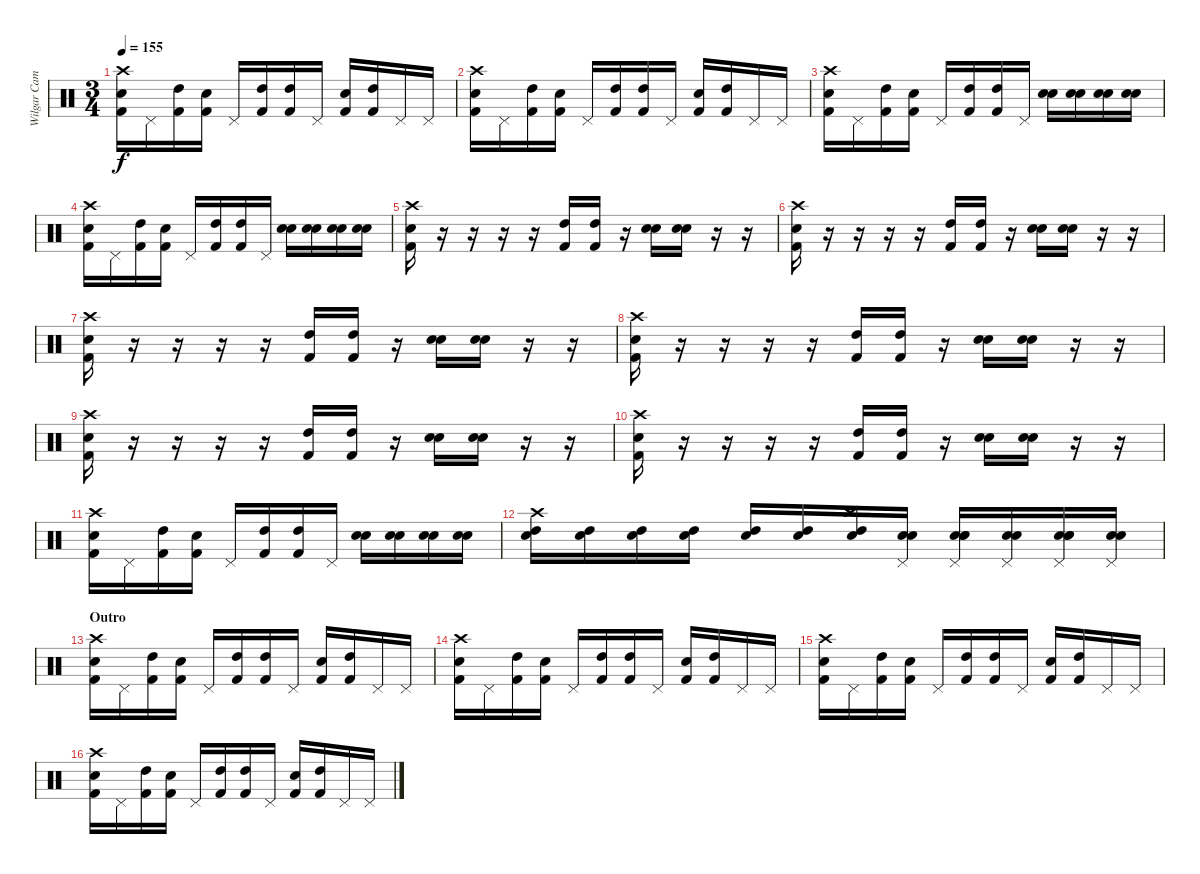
\track ("Wilgar Campbell" "Wilgar Cam") {instrument percussion}
\staff {score}
\articulation defaults
\ts (3 4)
\tempo 155
\clef neutral
\ks c
("Kick (hit) 2" "Snare (hit) 2" "Crash high (hit)").16{dy f} "Pedal Hi-Hat (hit)".16 ("Kick (hit) 2" "High Tom (hit)").16 ("Kick (hit) 2" "Snare (hit) 2").16 "Pedal Hi-Hat (hit)".16 ("High Tom (hit)" "Kick (hit) 2").16 ("High Tom (hit)" "Kick (hit) 2").16 "Pedal Hi-Hat (hit)".16 ("Electric Snare (hit)" "Kick (hit) 2").16 ("High Tom (hit)" "Kick (hit) 2").16 "Pedal Hi-Hat (hit)".16 "Pedal Hi-Hat (hit)".16 |
("Kick (hit) 2" "Snare (hit) 2" "Crash high (hit)").16 "Pedal Hi-Hat (hit)".16 ("Kick (hit) 2" "High Tom (hit)").16 ("Kick (hit) 2" "Snare (hit) 2").16 "Pedal Hi-Hat (hit)".16 ("High Tom (hit)" "Kick (hit) 2").16 ("High Tom (hit)" "Kick (hit) 2").16 "Pedal Hi-Hat (hit)".16 ("Electric Snare (hit)" "Kick (hit) 2").16 ("High Tom (hit)" "Kick (hit) 2").16 "Pedal Hi-Hat (hit)".16 "Pedal Hi-Hat (hit)".16 |
("Kick (hit) 2" "Snare (hit) 2" "Crash high (hit)").16 "Pedal Hi-Hat (hit)".16 ("Kick (hit) 2" "High Tom (hit)").16 ("Kick (hit) 2" "Snare (hit) 2").16 "Pedal Hi-Hat (hit)".16 ("High Tom (hit)" "Kick (hit) 2").16 ("High Tom (hit)" "Kick (hit) 2").16 "Pedal Hi-Hat (hit)".16 ("Electric Snare (hit)" "Electric Snare (hit)").16 ("Electric Snare (hit)" "Electric Snare (hit)").16 ("Electric Snare (hit)" "Electric Snare (hit)").16 ("Electric Snare (hit)" "Electric Snare (hit)").16 |
("Kick (hit) 2" "Snare (hit) 2" "Crash high (hit)").16 "Pedal Hi-Hat (hit)".16 ("Kick (hit) 2" "High Tom (hit)").16 ("Kick (hit) 2" "Snare (hit) 2").16 "Pedal Hi-Hat (hit)".16 ("High Tom (hit)" "Kick (hit) 2").16 ("High Tom (hit)" "Kick (hit) 2").16 "Pedal Hi-Hat (hit)".16 ("Electric Snare (hit)" "Electric Snare (hit)").16 ("Electric Snare (hit)" "Electric Snare (hit)").16 ("Electric Snare (hit)" "Electric Snare (hit)").16 ("Electric Snare (hit)" "Electric Snare (hit)").16 |
("Kick (hit) 2" "Snare (hit) 2" "Crash high (hit)").16 r.16 r.16 r.16 r.16 ("High Tom (hit)" "Kick (hit) 2").16 ("High Tom (hit)" "Kick (hit) 2").16 r.16 ("Electric Snare (hit)" "Electric Snare (hit)").16 ("Electric Snare (hit)" "Electric Snare (hit)").16 r.16 r.16 |
("Kick (hit) 2" "Snare (hit) 2" "Crash high (hit)").16 r.16 r.16 r.16 r.16 ("High Tom (hit)" "Kick (hit) 2").16 ("High Tom (hit)" "Kick (hit) 2").16 r.16 ("Electric Snare (hit)" "Electric Snare (hit)").16 ("Electric Snare (hit)" "Electric Snare (hit)").16 r.16 r.16 |
("Kick (hit) 2" "Snare (hit) 2" "Crash high (hit)").16 r.16 r.16 r.16 r.16 ("High Tom (hit)" "Kick (hit) 2").16 ("High Tom (hit)" "Kick (hit) 2").16 r.16 ("Electric Snare (hit)" "Electric Snare (hit)").16 ("Electric Snare (hit)" "Electric Snare (hit)").16 r.16 r.16 |
("Kick (hit) 2" "Snare (hit) 2" "Crash high (hit)").16 r.16 r.16 r.16 r.16 ("High Tom (hit)" "Kick (hit) 2").16 ("High Tom (hit)" "Kick (hit) 2").16 r.16 ("Electric Snare (hit)" "Electric Snare (hit)").16 ("Electric Snare (hit)" "Electric Snare (hit)").16 r.16 r.16 |
("Kick (hit) 2" "Snare (hit) 2" "Crash high (hit)").16 r.16 r.16 r.16 r.16 ("High Tom (hit)" "Kick (hit) 2").16 ("High Tom (hit)" "Kick (hit) 2").16 r.16 ("Electric Snare (hit)" "Electric Snare (hit)").16 ("Electric Snare (hit)" "Electric Snare (hit)").16 r.16 r.16 |
("Kick (hit) 2" "Snare (hit) 2" "Crash high (hit)").16 r.16 r.16 r.16 r.16 ("High Tom (hit)" "Kick (hit) 2").16 ("High Tom (hit)" "Kick (hit) 2").16 r.16 ("Electric Snare (hit)" "Electric Snare (hit)").16 ("Electric Snare (hit)" "Electric Snare (hit)").16 r.16 r.16 |
("Kick (hit) 2" "Snare (hit) 2" "Crash high (hit)").16 "Pedal Hi-Hat (hit)".16 ("Kick (hit) 2" "High Tom (hit)").16 ("Kick (hit) 2" "Snare (hit) 2").16 "Pedal Hi-Hat (hit)".16 ("High Tom (hit)" "Kick (hit) 2").16 ("High Tom (hit)" "Kick (hit) 2").16 "Pedal Hi-Hat (hit)".16 ("Electric Snare (hit)" "Electric Snare (hit)").16 ("Electric Snare (hit)" "Electric Snare (hit)").16 ("Electric Snare (hit)" "Electric Snare (hit)").16 ("Electric Snare (hit)" "Electric Snare (hit)").16 |
("Crash high (hit)" "High Tom (hit)" "Snare (hit) 2").16 ("High Tom (hit)" "Snare (hit) 2").16 ("High Tom (hit)" "Snare (hit) 2").16 ("High Tom (hit)" "Snare (hit) 2").16 ("High Tom (hit)" "Snare (hit) 2").16 ("High Tom (hit)" "Snare (hit) 2").16 ("Crash high (hit)" "High Tom (hit)" "Snare (hit) 2").16 ("Electric Snare (hit)" "Electric Snare (hit)" "Pedal Hi-Hat (hit)").16 ("Electric Snare (hit)" "Electric Snare (hit)" "Snare (hit) 2" "Pedal Hi-Hat (hit)").16 ("Electric Snare (hit)" "Electric Snare (hit)" "Pedal Hi-Hat (hit)").16 ("Electric Snare (hit)" "Electric Snare (hit)" "Snare (hit) 2" "Pedal Hi-Hat (hit)").16 ("Electric Snare (hit)" "Electric Snare (hit)" "Pedal Hi-Hat (hit)").16 |
\section ("" "Outro")
("Kick (hit) 2" "Snare (hit) 2" "Crash high (hit)").16 "Pedal Hi-Hat (hit)".16 ("Kick (hit) 2" "High Tom (hit)").16 ("Kick (hit) 2" "Snare (hit) 2").16 "Pedal Hi-Hat (hit)".16 ("High Tom (hit)" "Kick (hit) 2").16 ("High Tom (hit)" "Kick (hit) 2").16 "Pedal Hi-Hat (hit)".16 ("Electric Snare (hit)" "Kick (hit) 2").16 ("High Tom (hit)" "Kick (hit) 2").16 "Pedal Hi-Hat (hit)".16 "Pedal Hi-Hat (hit)".16 |
("Kick (hit) 2" "Snare (hit) 2" "Crash high (hit)").16 "Pedal Hi-Hat (hit)".16 ("Kick (hit) 2" "High Tom (hit)").16 ("Kick (hit) 2" "Snare (hit) 2").16 "Pedal Hi-Hat (hit)".16 ("High Tom (hit)" "Kick (hit) 2").16 ("High Tom (hit)" "Kick (hit) 2").16 "Pedal Hi-Hat (hit)".16 ("Electric Snare (hit)" "Kick (hit) 2").16 ("High Tom (hit)" "Kick (hit) 2").16 "Pedal Hi-Hat (hit)".16 "Pedal Hi-Hat (hit)".16 |
("Kick (hit) 2" "Snare (hit) 2" "Crash high (hit)").16 "Pedal Hi-Hat (hit)".16 ("Kick (hit) 2" "High Tom (hit)").16 ("Kick (hit) 2" "Snare (hit) 2").16 "Pedal Hi-Hat (hit)".16 ("High Tom (hit)" "Kick (hit) 2").16 ("High Tom (hit)" "Kick (hit) 2").16 "Pedal Hi-Hat (hit)".16 ("Electric Snare (hit)" "Kick (hit) 2").16 ("High Tom (hit)" "Kick (hit) 2").16 "Pedal Hi-Hat (hit)".16 "Pedal Hi-Hat (hit)".16 |
("Kick (hit) 2" "Snare (hit) 2" "Crash high (hit)").16 "Pedal Hi-Hat (hit)".16 ("Kick (hit) 2" "High Tom (hit)").16 ("Kick (hit) 2" "Snare (hit) 2").16 "Pedal Hi-Hat (hit)".16 ("High Tom (hit)" "Kick (hit) 2").16 ("High Tom (hit)" "Kick (hit) 2").16 "Pedal Hi-Hat (hit)".16 ("Electric Snare (hit)" "Kick (hit) 2").16 ("High Tom (hit)" "Kick (hit) 2").16 "Pedal Hi-Hat (hit)".16 "Pedal Hi-Hat (hit)".16
